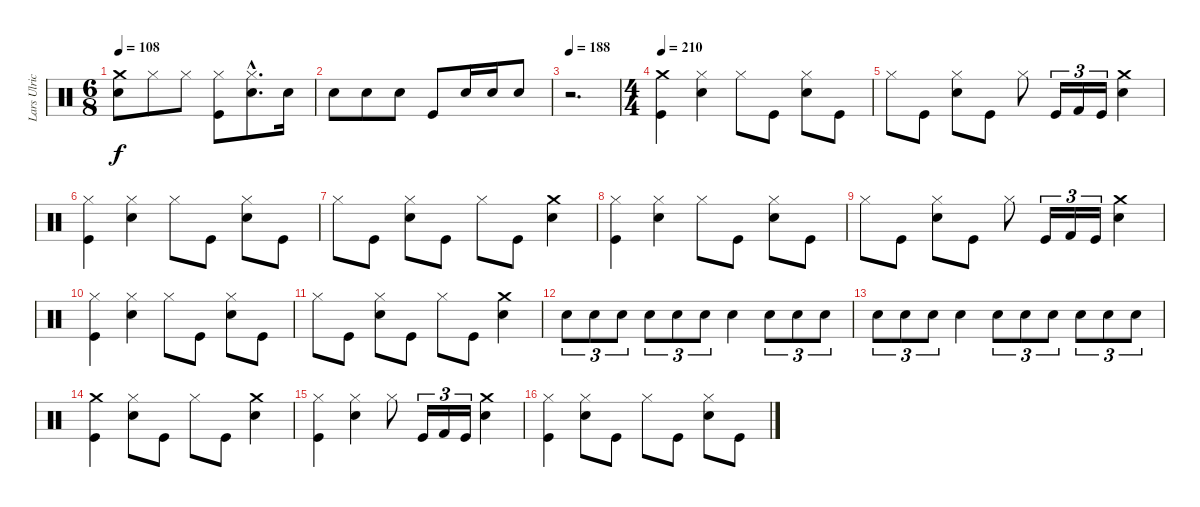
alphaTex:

\track ("Lars Ulrich (Drums)" "Lars Ulric") {instrument percussion}
\staff {score}
\articulation defaults
\ts (6 8)
\tempo 108
\clef neutral
\ks c
("Crash medium (hit)" "Snare (hit) 2").8{dy f} "Hi-Hat (closed)".8 "Hi-Hat (closed)".8 ("Kick (hit)" "Hi-Hat (closed)").8 ("Hi-Hat (closed)"{hac} "Snare (hit) 2"{hac}).8{d} "Snare (hit) 2".16 |
"Snare (hit) 2".8 "Snare (hit) 2".8 "Snare (hit) 2".8 "Kick (hit)".8 "Snare (hit) 2".16 "Snare (hit) 2".16 "Snare (hit) 2".8 |
\tempo 188
r.2{d} |
\ts (4 4)
\tempo 210
("Crash medium (hit)" "Kick (hit)").4 ("Hi-Hat (closed)" "Snare (hit) 2").4 "Hi-Hat (closed)".8 "Kick (hit)".8 ("Snare (hit) 2" "Hi-Hat (closed)").8 "Kick (hit)".8 |
"Hi-Hat (closed)".8 "Kick (hit)".8 ("Snare (hit) 2" "Hi-Hat (closed)").8 "Kick (hit)".8 "Hi-Hat (closed)".8 "Kick (hit)".16{tu (3 2)} "Kick (hit) 2".16{tu (3 2)} "Kick (hit)".16{tu (3 2)} ("Crash medium (hit)" "Snare (hit) 2").4 |
("Kick (hit)" "Hi-Hat (closed)").4 ("Hi-Hat (closed)" "Snare (hit) 2").4 "Hi-Hat (closed)".8 "Kick (hit)".8 ("Snare (hit) 2" "Hi-Hat (closed)").8 "Kick (hit)".8 |
"Hi-Hat (closed)".8 "Kick (hit)".8 ("Snare (hit) 2" "Hi-Hat (closed)").8 "Kick (hit)".8 "Hi-Hat (closed)".8 "Kick (hit)".8 ("Crash medium (hit)" "Snare (hit) 2").4 |
("Hi-Hat (closed)" "Kick (hit)").4 ("Snare (hit) 2" "Hi-Hat (closed)").4 "Hi-Hat (closed)".8 "Kick (hit)".8 ("Snare (hit) 2" "Hi-Hat (closed)").8 "Kick (hit)".8 |
"Hi-Hat (closed)".8 "Kick (hit)".8 ("Snare (hit) 2" "Hi-Hat (closed)").8 "Kick (hit)".8 "Hi-Hat (closed)".8 "Kick (hit)".16{tu (3 2)} "Kick (hit) 2".16{tu (3 2)} "Kick (hit)".16{tu (3 2)} ("Crash medium (hit)" "Snare (hit) 2").4 |
("Kick (hit)" "Hi-Hat (closed)").4 ("Snare (hit) 2" "Hi-Hat (closed)").4 "Hi-Hat (closed)".8 "Kick (hit)".8 ("Snare (hit) 2" "Hi-Hat (closed)").8 "Kick (hit)".8 |
"Hi-Hat (closed)".8 "Kick (hit)".8 ("Snare (hit) 2" "Hi-Hat (closed)").8 "Kick (hit)".8 "Hi-Hat (closed)".8 "Kick (hit)".8 ("Crash medium (hit)" "Snare (hit) 2").4 |
"Snare (hit) 2".8{tu (3 2)} "Snare (hit) 2".8{tu (3 2)} "Snare (hit) 2".8{tu (3 2)} "Snare (hit) 2".8{tu (3 2)} "Snare (hit) 2".8{tu (3 2)} "Snare (hit) 2".8{tu (3 2)} "Snare (hit) 2".4 "Snare (hit) 2".8{tu (3 2)} "Snare (hit) 2".8{tu (3 2)} "Snare (hit) 2".8{tu (3 2)} |
"Snare (hit) 2".8{tu (3 2)} "Snare (hit) 2".8{tu (3 2)} "Snare (hit) 2".8{tu (3 2)} "Snare (hit) 2".4 "Snare (hit) 2".8{tu (3 2)} "Snare (hit) 2".8{tu (3 2)} "Snare (hit) 2".8{tu (3 2)} "Snare (hit) 2".8{tu (3 2)} "Snare (hit) 2".8{tu (3 2)} "Snare (hit) 2".8{tu (3 2)} |
("Kick (hit)" "Crash medium (hit)").4 ("Hi-Hat (closed)" "Snare (hit) 2").8 "Kick (hit)".8 "Hi-Hat (closed)".8 "Kick (hit)".8 ("Crash medium (hit)" "Snare (hit) 2").4 |
("Hi-Hat (closed)" "Kick (hit)").4 ("Snare (hit) 2" "Hi-Hat (closed)").4 "Hi-Hat (closed)".8 "Kick (hit)".16{tu (3 2)} "Kick (hit) 2".16{tu (3 2)} "Kick (hit)".16{tu (3 2)} ("Crash medium (hit)" "Snare (hit) 2").4 |
("Hi-Hat (closed)" "Kick (hit)").4 ("Snare (hit) 2" "Hi-Hat (closed)").8 "Kick (hit)".8 "Hi-Hat (closed)".8 "Kick (hit)".8 ("Snare (hit) 2" "Hi-Hat (closed)").8 "Kick (hit)".8
